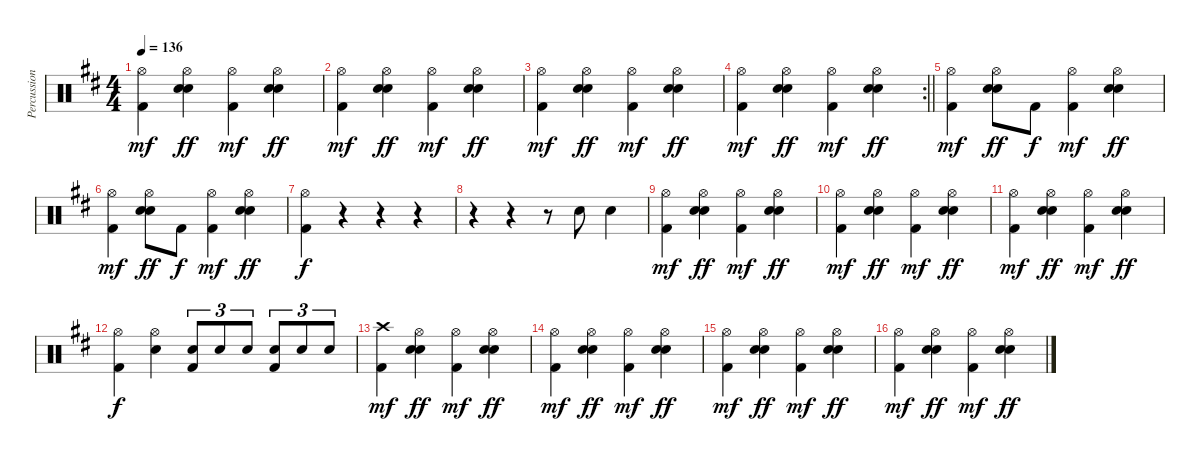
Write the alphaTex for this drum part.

\track ("Percussion" "Percussion") {instrument percussion}
\staff {score}
\articulation defaults
\ts (4 4)
\tempo 136
\clef neutral
\ks d
("Hi-Hat (open)" "Kick (hit) 2").4{dy mf} ("Hi-Hat (open)" "Snare (hit) 2" "Hand Clap (hit)").4{dy ff} ("Hi-Hat (open)" "Kick (hit) 2").4{dy mf} ("Hi-Hat (open)" "Snare (hit) 2" "Hand Clap (hit)").4{dy ff} |
("Hi-Hat (open)" "Kick (hit) 2").4{dy mf} ("Hi-Hat (open)" "Snare (hit) 2" "Hand Clap (hit)").4{dy ff} ("Hi-Hat (open)" "Kick (hit) 2").4{dy mf} ("Hi-Hat (open)" "Snare (hit) 2" "Hand Clap (hit)").4{dy ff} |
("Hi-Hat (open)" "Kick (hit) 2").4{dy mf} ("Hi-Hat (open)" "Snare (hit) 2" "Hand Clap (hit)").4{dy ff} ("Hi-Hat (open)" "Kick (hit) 2").4{dy mf} ("Hi-Hat (open)" "Snare (hit) 2" "Hand Clap (hit)").4{dy ff} |
\rc 2
\barLineRight lightlight
("Hi-Hat (open)" "Kick (hit) 2").4{dy mf} ("Hi-Hat (open)" "Snare (hit) 2" "Hand Clap (hit)").4{dy ff} ("Hi-Hat (open)" "Kick (hit) 2").4{dy mf} ("Hi-Hat (open)" "Snare (hit) 2" "Hand Clap (hit)").4{dy ff} |
("Hi-Hat (open)" "Kick (hit) 2").4{dy mf} ("Hi-Hat (open)" "Snare (hit) 2" "Hand Clap (hit)").8{dy ff} "Kick (hit) 2".8{dy f} ("Hi-Hat (open)" "Kick (hit) 2").4{dy mf} ("Hi-Hat (open)" "Snare (hit) 2" "Hand Clap (hit)").4{dy ff} |
("Hi-Hat (open)" "Kick (hit) 2").4{dy mf} ("Hi-Hat (open)" "Snare (hit) 2" "Hand Clap (hit)").8{dy ff} "Kick (hit) 2".8{dy f} ("Hi-Hat (open)" "Kick (hit) 2").4{dy mf} ("Hi-Hat (open)" "Snare (hit) 2" "Hand Clap (hit)").4{dy ff} |
("Hi-Hat (open)" "Kick (hit) 2").4{dy f} r.4 r.4 r.4 |
r.4 r.4 r.8 "Snare (hit) 2".8 "Snare (hit) 2".4 |
("Hi-Hat (open)" "Kick (hit) 2").4{dy mf} ("Hi-Hat (open)" "Snare (hit) 2" "Hand Clap (hit)").4{dy ff} ("Hi-Hat (open)" "Kick (hit) 2").4{dy mf} ("Hi-Hat (open)" "Snare (hit) 2" "Hand Clap (hit)").4{dy ff} |
("Hi-Hat (open)" "Kick (hit) 2").4{dy mf} ("Hi-Hat (open)" "Snare (hit) 2" "Hand Clap (hit)").4{dy ff} ("Hi-Hat (open)" "Kick (hit) 2").4{dy mf} ("Hi-Hat (open)" "Snare (hit) 2" "Hand Clap (hit)").4{dy ff} |
("Hi-Hat (open)" "Kick (hit) 2").4{dy mf} ("Hi-Hat (open)" "Snare (hit) 2" "Hand Clap (hit)").4{dy ff} ("Hi-Hat (open)" "Kick (hit) 2").4{dy mf} ("Hi-Hat (open)" "Snare (hit) 2" "Hand Clap (hit)").4{dy ff} |
("Hi-Hat (open)" "Kick (hit) 2").4{dy f} ("Hi-Hat (open)" "Snare (hit) 2").4 ("Snare (hit) 2" "Kick (hit) 2").8{tu (3 2)} "Snare (hit) 2".8{tu (3 2)} "Snare (hit) 2".8{tu (3 2)} ("Snare (hit) 2" "Kick (hit) 2").8{tu (3 2)} "Snare (hit) 2".8{tu (3 2)} "Snare (hit) 2".8{tu (3 2)} |
("Crash high (hit)" "Kick (hit) 2").4{dy mf} ("Hi-Hat (open)" "Snare (hit) 2" "Hand Clap (hit)").4{dy ff} ("Hi-Hat (open)" "Kick (hit) 2").4{dy mf} ("Hi-Hat (open)" "Snare (hit) 2" "Hand Clap (hit)").4{dy ff} |
("Hi-Hat (open)" "Kick (hit) 2").4{dy mf} ("Hi-Hat (open)" "Snare (hit) 2" "Hand Clap (hit)").4{dy ff} ("Hi-Hat (open)" "Kick (hit) 2").4{dy mf} ("Hi-Hat (open)" "Snare (hit) 2" "Hand Clap (hit)").4{dy ff} |
("Hi-Hat (open)" "Kick (hit) 2").4{dy mf} ("Hi-Hat (open)" "Snare (hit) 2" "Hand Clap (hit)").4{dy ff} ("Hi-Hat (open)" "Kick (hit) 2").4{dy mf} ("Hi-Hat (open)" "Snare (hit) 2" "Hand Clap (hit)").4{dy ff} |
("Hi-Hat (open)" "Kick (hit) 2").4{dy mf} ("Hi-Hat (open)" "Snare (hit) 2" "Hand Clap (hit)").4{dy ff} ("Hi-Hat (open)" "Kick (hit) 2").4{dy mf} ("Hi-Hat (open)" "Snare (hit) 2" "Hand Clap (hit)").4{dy ff}
